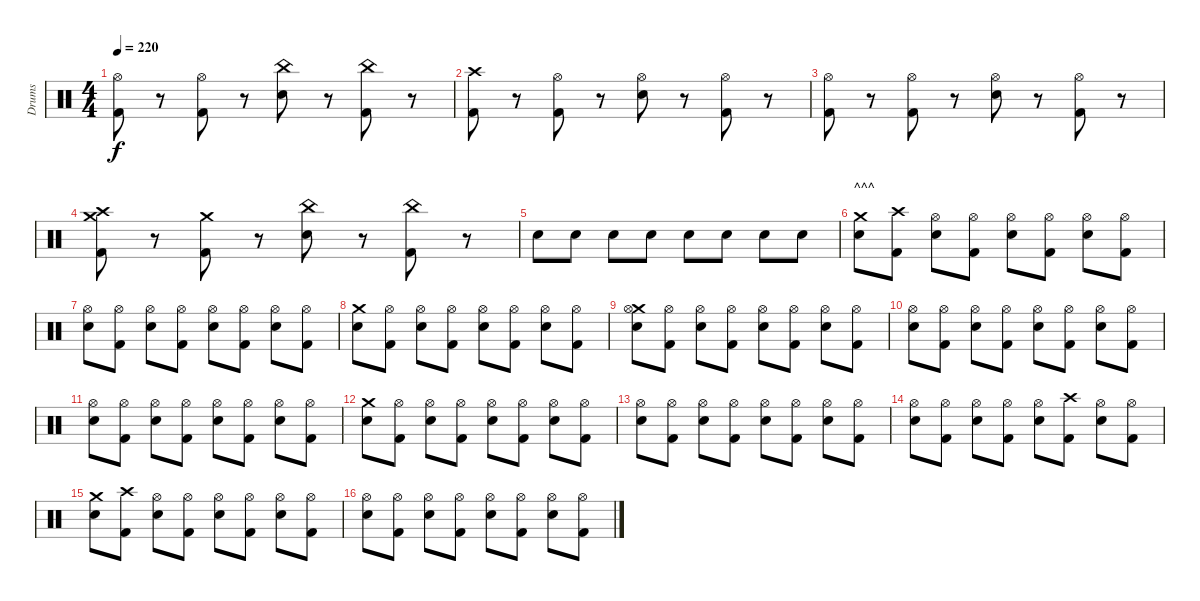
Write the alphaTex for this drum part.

\track ("Drums" "Drums") {instrument percussion}
\staff {score}
\articulation defaults
\ts (4 4)
\tempo 220
\clef neutral
\ks c
("Hi-Hat (open)" "Kick (hit) 2").8{dy f} r.8 ("Hi-Hat (open)" "Kick (hit) 2").8 r.8 ("China (hit)" "Electric Snare (hit)").8 r.8 ("China (hit)" "Kick (hit) 2").8 r.8 |
("Crash high (hit)" "Kick (hit) 2").8 r.8 ("Hi-Hat (open)" "Kick (hit) 2").8 r.8 ("Hi-Hat (open)" "Electric Snare (hit)").8 r.8 ("Hi-Hat (open)" "Kick (hit) 2").8 r.8 |
("Hi-Hat (open)" "Kick (hit) 2").8 r.8 ("Hi-Hat (open)" "Kick (hit) 2").8 r.8 ("Hi-Hat (open)" "Electric Snare (hit)").8 r.8 ("Hi-Hat (open)" "Kick (hit) 2").8 r.8 |
("Crash medium (hit)" "Crash high (hit)" "Kick (hit) 2").8 r.8 ("Crash medium (hit)" "Kick (hit) 2").8 r.8 ("China (hit)" "Electric Snare (hit)").8 r.8 ("China (hit)" "Kick (hit) 2").8 r.8 |
"Electric Snare (hit)".8 "Electric Snare (hit)".8 "Electric Snare (hit)".8 "Electric Snare (hit)".8 "Electric Snare (hit)".8 "Electric Snare (hit)".8 "Electric Snare (hit)".8 "Electric Snare (hit)".8 |
\section ("" "^^^")
("Crash medium (hit)" "Electric Snare (hit)").8 ("Crash high (hit)" "Kick (hit) 2").8 ("Hi-Hat (open)" "Electric Snare (hit)").8 ("Hi-Hat (open)" "Kick (hit) 2").8 ("Hi-Hat (open)" "Electric Snare (hit)").8 ("Hi-Hat (open)" "Kick (hit) 2").8 ("Hi-Hat (open)" "Electric Snare (hit)").8 ("Hi-Hat (open)" "Kick (hit) 2").8 |
("Hi-Hat (open)" "Electric Snare (hit)").8 ("Hi-Hat (open)" "Kick (hit) 2").8 ("Hi-Hat (open)" "Electric Snare (hit)").8 ("Hi-Hat (open)" "Kick (hit) 2").8 ("Hi-Hat (open)" "Electric Snare (hit)").8 ("Hi-Hat (open)" "Kick (hit) 2").8 ("Hi-Hat (open)" "Electric Snare (hit)").8 ("Hi-Hat (open)" "Kick (hit) 2").8 |
("Crash medium (hit)" "Electric Snare (hit)").8 ("Hi-Hat (open)" "Kick (hit) 2").8 ("Hi-Hat (open)" "Electric Snare (hit)").8 ("Hi-Hat (open)" "Kick (hit) 2").8 ("Hi-Hat (open)" "Electric Snare (hit)").8 ("Hi-Hat (open)" "Kick (hit) 2").8 ("Hi-Hat (open)" "Electric Snare (hit)").8 ("Hi-Hat (open)" "Kick (hit) 2").8 |
("Crash medium (hit)" "Hi-Hat (open)" "Electric Snare (hit)").8 ("Hi-Hat (open)" "Kick (hit) 2").8 ("Hi-Hat (open)" "Electric Snare (hit)").8 ("Hi-Hat (open)" "Kick (hit) 2").8 ("Hi-Hat (open)" "Electric Snare (hit)").8 ("Hi-Hat (open)" "Kick (hit) 2").8 ("Hi-Hat (open)" "Electric Snare (hit)").8 ("Hi-Hat (open)" "Kick (hit) 2").8 |
("Hi-Hat (open)" "Electric Snare (hit)").8 ("Hi-Hat (open)" "Kick (hit) 2").8 ("Hi-Hat (open)" "Electric Snare (hit)").8 ("Hi-Hat (open)" "Kick (hit) 2").8 ("Hi-Hat (open)" "Electric Snare (hit)").8 ("Hi-Hat (open)" "Kick (hit) 2").8 ("Hi-Hat (open)" "Electric Snare (hit)").8 ("Hi-Hat (open)" "Kick (hit) 2").8 |
("Hi-Hat (open)" "Electric Snare (hit)").8 ("Hi-Hat (open)" "Kick (hit) 2").8 ("Hi-Hat (open)" "Electric Snare (hit)").8 ("Hi-Hat (open)" "Kick (hit) 2").8 ("Hi-Hat (open)" "Electric Snare (hit)").8 ("Hi-Hat (open)" "Kick (hit) 2").8 ("Hi-Hat (open)" "Electric Snare (hit)").8 ("Hi-Hat (open)" "Kick (hit) 2").8 |
("Crash medium (hit)" "Electric Snare (hit)").8 ("Hi-Hat (open)" "Kick (hit) 2").8 ("Hi-Hat (open)" "Electric Snare (hit)").8 ("Hi-Hat (open)" "Kick (hit) 2").8 ("Hi-Hat (open)" "Electric Snare (hit)").8 ("Hi-Hat (open)" "Kick (hit) 2").8 ("Hi-Hat (open)" "Electric Snare (hit)").8 ("Hi-Hat (open)" "Kick (hit) 2").8 |
("Hi-Hat (open)" "Electric Snare (hit)").8 ("Hi-Hat (open)" "Kick (hit) 2").8 ("Hi-Hat (open)" "Electric Snare (hit)").8 ("Hi-Hat (open)" "Kick (hit) 2").8 ("Hi-Hat (open)" "Electric Snare (hit)").8 ("Hi-Hat (open)" "Kick (hit) 2").8 ("Hi-Hat (open)" "Electric Snare (hit)").8 ("Hi-Hat (open)" "Kick (hit) 2").8 |
("Hi-Hat (open)" "Electric Snare (hit)").8 ("Hi-Hat (open)" "Kick (hit) 2").8 ("Hi-Hat (open)" "Electric Snare (hit)").8 ("Hi-Hat (open)" "Kick (hit) 2").8 ("Hi-Hat (open)" "Electric Snare (hit)").8 ("Crash high (hit)" "Kick (hit) 2").8 ("Hi-Hat (open)" "Electric Snare (hit)").8 ("Hi-Hat (open)" "Kick (hit) 2").8 |
("Crash medium (hit)" "Electric Snare (hit)").8 ("Crash high (hit)" "Kick (hit) 2").8 ("Hi-Hat (open)" "Electric Snare (hit)").8 ("Hi-Hat (open)" "Kick (hit) 2").8 ("Hi-Hat (open)" "Electric Snare (hit)").8 ("Hi-Hat (open)" "Kick (hit) 2").8 ("Hi-Hat (open)" "Electric Snare (hit)").8 ("Hi-Hat (open)" "Kick (hit) 2").8 |
("Hi-Hat (open)" "Electric Snare (hit)").8 ("Hi-Hat (open)" "Kick (hit) 2").8 ("Hi-Hat (open)" "Electric Snare (hit)").8 ("Hi-Hat (open)" "Kick (hit) 2").8 ("Hi-Hat (open)" "Electric Snare (hit)").8 ("Hi-Hat (open)" "Kick (hit) 2").8 ("Hi-Hat (open)" "Electric Snare (hit)").8 ("Hi-Hat (open)" "Kick (hit) 2").8
